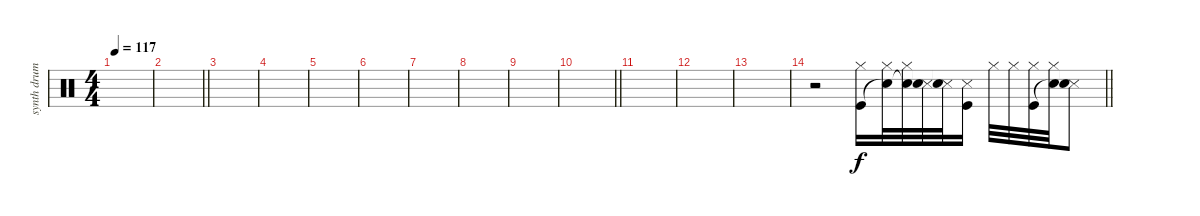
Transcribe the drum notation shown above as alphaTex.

\track ("synth drums" "synth drum") {instrument percussion}
\staff {score}
\articulation defaults
\ts (4 4)
\tempo 117
\clef neutral
\ks c
|
\barLineRight lightlight
|
|
|
|
|
|
|
|
\barLineRight lightlight
|
|
|
|
\barLineRight lightlight
r.2 ("Hi-Hat (closed)" "Kick (hit)").16 ("Hi-Hat (closed)" "Snare (hit)"{t}).32 ("Hi-Hat (closed)" "Snare (hit)"{t}).32 ("Metronome (hit)" "Snare (hit)"{t}).32 ("Metronome (hit)" "Snare (hit)"{t}).32 ("Metronome (hit)" "Kick (hit)").16 "Hi-Hat (closed)".32 "Hi-Hat (closed)".32 ("Hi-Hat (closed)" "Kick (hit)").32 ("Hi-Hat (closed)" "Snare (hit)"{t}).32 ("Metronome (hit)" "Snare (hit)"{t}).8
